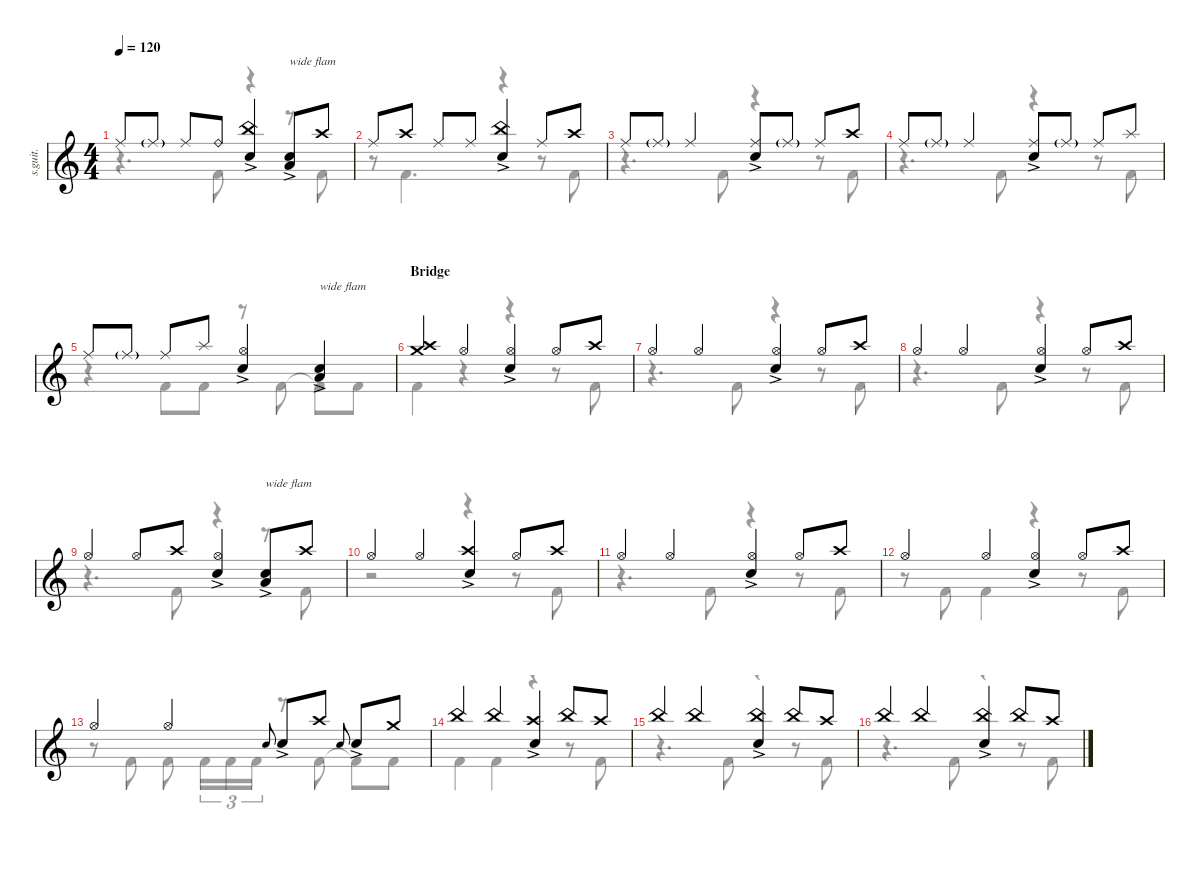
\defaultSystemsLayout 4
\hideDynamics
\bracketExtendMode nobrackets
\track ("Percussion" "s.guit.") {instrument percussion}
\staff {score}
\articulation defaults
\voice
\ts (4 4)
\tempo 120
\clef g2
\ks c "Ride (middle)".8{lyrics (0 "") lyrics (1 "") lyrics (2 "") lyrics (3 "") lyrics (4 "") dy f} "Ride (middle)"{g}.8{lyrics (0 "") lyrics (1 "") lyrics (2 "") lyrics (3 "") lyrics (4 "") dy ff} "Ride (middle)".8{lyrics (0 "") lyrics (1 "") lyrics (2 "") lyrics (3 "") lyrics (4 "") dy f} "Ride (bell)".8{lyrics (0 "") lyrics (1 "") lyrics (2 "") lyrics (3 "") lyrics (4 "")}
("China (hit)" "Snare (hit) 2"{ac}).4{lyrics (0 "") lyrics (1 "") lyrics (2 "") lyrics (3 "") lyrics (4 "")} ("Snare (hit) 2"{ac} "Low Tom (hit)"{ac}).8{txt "wide flam" lyrics (0 "") lyrics (1 "") lyrics (2 "") lyrics (3 "") lyrics (4 "") dy mf} "Crash high (hit)".8{lyrics (0 "") lyrics (1 "") lyrics (2 "") lyrics (3 "") lyrics (4 "") dy f} |
"Ride (middle)".8{lyrics (0 "") lyrics (1 "") lyrics (2 "") lyrics (3 "") lyrics (4 "")} "Crash high (hit)".8{lyrics (0 "") lyrics (1 "") lyrics (2 "") lyrics (3 "") lyrics (4 "")} "Ride (middle)".8{lyrics (0 "") lyrics (1 "") lyrics (2 "") lyrics (3 "") lyrics (4 "")} "Ride (middle)".8{lyrics (0 "") lyrics (1 "") lyrics (2 "") lyrics (3 "") lyrics (4 "")} ("China (hit)" "Snare (hit) 2"{ac}).4{lyrics (0 "") lyrics (1 "") lyrics (2 "") lyrics (3 "") lyrics (4 "")} "Ride (middle)".8{lyrics (0 "") lyrics (1 "") lyrics (2 "") lyrics (3 "") lyrics (4 "")} "Crash high (hit)".8{lyrics (0 "") lyrics (1 "") lyrics (2 "") lyrics (3 "") lyrics (4 "")} |
"Ride (middle)".8{lyrics (0 "") lyrics (1 "") lyrics (2 "") lyrics (3 "") lyrics (4 "")} "Ride (middle)"{g}.8{lyrics (0 "") lyrics (1 "") lyrics (2 "") lyrics (3 "") lyrics (4 "") dy ff} "Ride (middle)".4{lyrics (0 "") lyrics (1 "") lyrics (2 "") lyrics (3 "") lyrics (4 "") dy f} ("Ride (middle)" "Snare (hit) 2"{ac}).8{lyrics (0 "") lyrics (1 "") lyrics (2 "") lyrics (3 "") lyrics (4 "")} "Ride (middle)"{g}.8{lyrics (0 "") lyrics (1 "") lyrics (2 "") lyrics (3 "") lyrics (4 "") dy ff} "Ride (middle)".8{lyrics (0 "") lyrics (1 "") lyrics (2 "") lyrics (3 "") lyrics (4 "") dy f} "Crash high (hit)".8{lyrics (0 "") lyrics (1 "") lyrics (2 "") lyrics (3 "") lyrics (4 "")} |
"Ride (middle)".8{lyrics (0 "") lyrics (1 "") lyrics (2 "") lyrics (3 "") lyrics (4 "")} "Ride (middle)"{g}.8{lyrics (0 "") lyrics (1 "") lyrics (2 "") lyrics (3 "") lyrics (4 "") dy ff} "Ride (middle)".4{lyrics (0 "") lyrics (1 "") lyrics (2 "") lyrics (3 "") lyrics (4 "") dy f} ("Ride (middle)" "Snare (hit) 2"{ac}).8{lyrics (0 "") lyrics (1 "") lyrics (2 "") lyrics (3 "") lyrics (4 "")} "Ride (middle)"{g}.8{lyrics (0 "") lyrics (1 "") lyrics (2 "") lyrics (3 "") lyrics (4 "") dy ff} "Ride (middle)".8{lyrics (0 "") lyrics (1 "") lyrics (2 "") lyrics (3 "") lyrics (4 "") dy f} "Splash (hit)".8{lyrics (0 "") lyrics (1 "") lyrics (2 "") lyrics (3 "") lyrics (4 "")} |
"Ride (middle)".8{lyrics (0 "") lyrics (1 "") lyrics (2 "") lyrics (3 "") lyrics (4 "")} "Ride (middle)"{g}.8{lyrics (0 "") lyrics (1 "") lyrics (2 "") lyrics (3 "") lyrics (4 "") dy ff} "Ride (middle)".8{lyrics (0 "") lyrics (1 "") lyrics (2 "") lyrics (3 "") lyrics (4 "") dy f} "Splash (hit)".8{lyrics (0 "") lyrics (1 "") lyrics (2 "") lyrics (3 "") lyrics (4 "")} ("Snare (hit) 2"{ac} "Hi-Hat (open)").4{lyrics (0 "") lyrics (1 "") lyrics (2 "") lyrics (3 "") lyrics (4 "")} ("Snare (hit) 2"{ac} "Low Tom (hit)"{ac}).4{txt "wide flam" lyrics (0 "") lyrics (1 "") lyrics (2 "") lyrics (3 "") lyrics (4 "") dy mf} |
\section ("" "Bridge")
("Crash high (hit)" "Crash medium (hit)").4{lyrics (0 "") lyrics (1 "") lyrics (2 "") lyrics (3 "") lyrics (4 "") dy f} "Hi-Hat (open)".4{lyrics (0 "") lyrics (1 "") lyrics (2 "") lyrics (3 "") lyrics (4 "")} ("Hi-Hat (open)" "Snare (hit) 2"{ac}).4{lyrics (0 "") lyrics (1 "") lyrics (2 "") lyrics (3 "") lyrics (4 "")} "Hi-Hat (open)".8{lyrics (0 "") lyrics (1 "") lyrics (2 "") lyrics (3 "") lyrics (4 "")} "Crash high (hit)".8{lyrics (0 "") lyrics (1 "") lyrics (2 "") lyrics (3 "") lyrics (4 "")} |
"Hi-Hat (open)".4{lyrics (0 "") lyrics (1 "") lyrics (2 "") lyrics (3 "") lyrics (4 "")} "Hi-Hat (open)".4{lyrics (0 "") lyrics (1 "") lyrics (2 "") lyrics (3 "") lyrics (4 "")} ("Hi-Hat (open)" "Snare (hit) 2"{ac}).4{lyrics (0 "") lyrics (1 "") lyrics (2 "") lyrics (3 "") lyrics (4 "")} "Hi-Hat (open)".8{lyrics (0 "") lyrics (1 "") lyrics (2 "") lyrics (3 "") lyrics (4 "")} "Crash high (hit)".8{lyrics (0 "") lyrics (1 "") lyrics (2 "") lyrics (3 "") lyrics (4 "")} |
"Hi-Hat (open)".4{lyrics (0 "") lyrics (1 "") lyrics (2 "") lyrics (3 "") lyrics (4 "")} "Hi-Hat (open)".4{lyrics (0 "") lyrics (1 "") lyrics (2 "") lyrics (3 "") lyrics (4 "")} ("Hi-Hat (open)" "Snare (hit) 2"{ac}).4{lyrics (0 "") lyrics (1 "") lyrics (2 "") lyrics (3 "") lyrics (4 "")} "Hi-Hat (open)".8{lyrics (0 "") lyrics (1 "") lyrics (2 "") lyrics (3 "") lyrics (4 "")} "Crash high (hit)".8{lyrics (0 "") lyrics (1 "") lyrics (2 "") lyrics (3 "") lyrics (4 "")} |
"Hi-Hat (open)".4{lyrics (0 "") lyrics (1 "") lyrics (2 "") lyrics (3 "") lyrics (4 "")} "Hi-Hat (open)".8{lyrics (0 "") lyrics (1 "") lyrics (2 "") lyrics (3 "") lyrics (4 "")} "Crash high (hit)".8{lyrics (0 "") lyrics (1 "") lyrics (2 "") lyrics (3 "") lyrics (4 "")} ("Hi-Hat (open)" "Snare (hit) 2"{ac}).4{lyrics (0 "") lyrics (1 "") lyrics (2 "") lyrics (3 "") lyrics (4 "")} ("Snare (hit) 2"{ac} "Low Tom (hit)"{ac}).8{txt "wide flam" lyrics (0 "") lyrics (1 "") lyrics (2 "") lyrics (3 "") lyrics (4 "") dy mf} "Crash high (hit)".8{lyrics (0 "") lyrics (1 "") lyrics (2 "") lyrics (3 "") lyrics (4 "") dy f} |
"Hi-Hat (open)".4{lyrics (0 "") lyrics (1 "") lyrics (2 "") lyrics (3 "") lyrics (4 "")} "Hi-Hat (open)".4{lyrics (0 "") lyrics (1 "") lyrics (2 "") lyrics (3 "") lyrics (4 "")} ("Crash high (hit)" "Snare (hit) 2"{ac}).4{lyrics (0 "") lyrics (1 "") lyrics (2 "") lyrics (3 "") lyrics (4 "")} "Hi-Hat (open)".8{lyrics (0 "") lyrics (1 "") lyrics (2 "") lyrics (3 "") lyrics (4 "")} "Crash high (hit)".8{lyrics (0 "") lyrics (1 "") lyrics (2 "") lyrics (3 "") lyrics (4 "")} |
"Hi-Hat (open)".4{lyrics (0 "") lyrics (1 "") lyrics (2 "") lyrics (3 "") lyrics (4 "")} "Hi-Hat (open)".4{lyrics (0 "") lyrics (1 "") lyrics (2 "") lyrics (3 "") lyrics (4 "")} ("Hi-Hat (open)" "Snare (hit) 2"{ac}).4{lyrics (0 "") lyrics (1 "") lyrics (2 "") lyrics (3 "") lyrics (4 "")} "Hi-Hat (open)".8{lyrics (0 "") lyrics (1 "") lyrics (2 "") lyrics (3 "") lyrics (4 "")} "Crash high (hit)".8{lyrics (0 "") lyrics (1 "") lyrics (2 "") lyrics (3 "") lyrics (4 "")} |
"Hi-Hat (open)".4{lyrics (0 "") lyrics (1 "") lyrics (2 "") lyrics (3 "") lyrics (4 "")} "Hi-Hat (open)".4{lyrics (0 "") lyrics (1 "") lyrics (2 "") lyrics (3 "") lyrics (4 "")} ("Hi-Hat (open)" "Snare (hit) 2"{ac}).4{lyrics (0 "") lyrics (1 "") lyrics (2 "") lyrics (3 "") lyrics (4 "")} "Hi-Hat (open)".8{lyrics (0 "") lyrics (1 "") lyrics (2 "") lyrics (3 "") lyrics (4 "")} "Crash high (hit)".8{lyrics (0 "") lyrics (1 "") lyrics (2 "") lyrics (3 "") lyrics (4 "")} |
"Hi-Hat (open)".4{lyrics (0 "") lyrics (1 "") lyrics (2 "") lyrics (3 "") lyrics (4 "")} "Hi-Hat (open)".4{lyrics (0 "") lyrics (1 "") lyrics (2 "") lyrics (3 "") lyrics (4 "")} "Snare (hit) 2".8{lyrics (0 "") lyrics (1 "") lyrics (2 "") lyrics (3 "") lyrics (4 "") gr onbeat dy mf} "Snare (hit) 2"{ac}.8{lyrics (0 "") lyrics (1 "") lyrics (2 "") lyrics (3 "") lyrics (4 "")} "Crash high (hit)".8{lyrics (0 "") lyrics (1 "") lyrics (2 "") lyrics (3 "") lyrics (4 "") dy f} "Snare (hit) 2".8{lyrics (0 "") lyrics (1 "") lyrics (2 "") lyrics (3 "") lyrics (4 "") gr onbeat dy mf} "Snare (hit) 2"{ac}.8{lyrics (0 "") lyrics (1 "") lyrics (2 "") lyrics (3 "") lyrics (4 "")} "Crash medium (hit)".8{lyrics (0 "") lyrics (1 "") lyrics (2 "") lyrics (3 "") lyrics (4 "") dy f} |
"China (hit)".4{lyrics (0 "") lyrics (1 "") lyrics (2 "") lyrics (3 "") lyrics (4 "")} "China (hit)".4{lyrics (0 "") lyrics (1 "") lyrics (2 "") lyrics (3 "") lyrics (4 "")} ("Crash high (hit)" "Snare (hit) 2"{ac}).4{lyrics (0 "") lyrics (1 "") lyrics (2 "") lyrics (3 "") lyrics (4 "")} "China (hit)".8{lyrics (0 "") lyrics (1 "") lyrics (2 "") lyrics (3 "") lyrics (4 "")} "Crash high (hit)".8{lyrics (0 "") lyrics (1 "") lyrics (2 "") lyrics (3 "") lyrics (4 "")} |
"China (hit)".4{lyrics (0 "") lyrics (1 "") lyrics (2 "") lyrics (3 "") lyrics (4 "")} "China (hit)".4{lyrics (0 "") lyrics (1 "") lyrics (2 "") lyrics (3 "") lyrics (4 "")} ("China (hit)" "Snare (hit) 2"{ac}).4{lyrics (0 "") lyrics (1 "") lyrics (2 "") lyrics (3 "") lyrics (4 "")} "China (hit)".8{lyrics (0 "") lyrics (1 "") lyrics (2 "") lyrics (3 "") lyrics (4 "")} "Crash high (hit)".8{lyrics (0 "") lyrics (1 "") lyrics (2 "") lyrics (3 "") lyrics (4 "")} |
"China (hit)".4{lyrics (0 "") lyrics (1 "") lyrics (2 "") lyrics (3 "") lyrics (4 "")} "China (hit)".4{lyrics (0 "") lyrics (1 "") lyrics (2 "") lyrics (3 "") lyrics (4 "")} ("China (hit)" "Snare (hit) 2"{ac}).4{lyrics (0 "") lyrics (1 "") lyrics (2 "") lyrics (3 "") lyrics (4 "")} "China (hit)".8{lyrics (0 "") lyrics (1 "") lyrics (2 "") lyrics (3 "") lyrics (4 "")} "Crash high (hit)".8{lyrics (0 "") lyrics (1 "") lyrics (2 "") lyrics (3 "") lyrics (4 "")}
\voice
\clef g2
\ottava regular
\simile none
\ks c
r.4{d dy f} "Kick (hit) 2".8{lyrics (0 "") lyrics (1 "") lyrics (2 "") lyrics (3 "") lyrics (4 "")} r.4 r.8 "Kick (hit) 2".8{lyrics (0 "") lyrics (1 "") lyrics (2 "") lyrics (3 "") lyrics (4 "")} |
r.8 "Kick (hit) 2".4{d lyrics (0 "") lyrics (1 "") lyrics (2 "") lyrics (3 "") lyrics (4 "")} r.4 r.8 "Kick (hit) 2".8{lyrics (0 "") lyrics (1 "") lyrics (2 "") lyrics (3 "") lyrics (4 "")} |
r.4{d} "Kick (hit) 2".8{lyrics (0 "") lyrics (1 "") lyrics (2 "") lyrics (3 "") lyrics (4 "")} r.4 r.8 "Kick (hit) 2".8{lyrics (0 "") lyrics (1 "") lyrics (2 "") lyrics (3 "") lyrics (4 "")} |
r.4{d} "Kick (hit) 2".8{lyrics (0 "") lyrics (1 "") lyrics (2 "") lyrics (3 "") lyrics (4 "")} r.4 r.8 "Kick (hit) 2".8{lyrics (0 "") lyrics (1 "") lyrics (2 "") lyrics (3 "") lyrics (4 "")} |
r.4 "Kick (hit) 2".8{lyrics (0 "") lyrics (1 "") lyrics (2 "") lyrics (3 "") lyrics (4 "")} "Kick (hit) 2".8{lyrics (0 "") lyrics (1 "") lyrics (2 "") lyrics (3 "") lyrics (4 "")} r.8 "Kick (hit) 2".8{lyrics (0 "") lyrics (1 "") lyrics (2 "") lyrics (3 "") lyrics (4 "")} "Kick (hit) 2"{t}.8{lyrics (0 "") lyrics (1 "") lyrics (2 "") lyrics (3 "") lyrics (4 "")} "Kick (hit) 2".8{lyrics (0 "") lyrics (1 "") lyrics (2 "") lyrics (3 "") lyrics (4 "")} |
"Kick (hit) 2".4{lyrics (0 "") lyrics (1 "") lyrics (2 "") lyrics (3 "") lyrics (4 "")} r.4 r.4 r.8 "Kick (hit) 2".8{lyrics (0 "") lyrics (1 "") lyrics (2 "") lyrics (3 "") lyrics (4 "")} |
r.4{d} "Kick (hit) 2".8{lyrics (0 "") lyrics (1 "") lyrics (2 "") lyrics (3 "") lyrics (4 "")} r.4 r.8 "Kick (hit) 2".8{lyrics (0 "") lyrics (1 "") lyrics (2 "") lyrics (3 "") lyrics (4 "")} |
r.4{d} "Kick (hit) 2".8{lyrics (0 "") lyrics (1 "") lyrics (2 "") lyrics (3 "") lyrics (4 "")} r.4 r.8 "Kick (hit) 2".8{lyrics (0 "") lyrics (1 "") lyrics (2 "") lyrics (3 "") lyrics (4 "")} |
r.4{d} "Kick (hit) 2".8{lyrics (0 "") lyrics (1 "") lyrics (2 "") lyrics (3 "") lyrics (4 "")} r.4 r.8 "Kick (hit) 2".8{lyrics (0 "") lyrics (1 "") lyrics (2 "") lyrics (3 "") lyrics (4 "")} |
r.2 r.4 r.8 "Kick (hit) 2".8{lyrics (0 "") lyrics (1 "") lyrics (2 "") lyrics (3 "") lyrics (4 "")} |
r.4{d} "Kick (hit) 2".8{lyrics (0 "") lyrics (1 "") lyrics (2 "") lyrics (3 "") lyrics (4 "")} r.4 r.8 "Kick (hit) 2".8{lyrics (0 "") lyrics (1 "") lyrics (2 "") lyrics (3 "") lyrics (4 "")} |
r.8 "Kick (hit) 2".8{lyrics (0 "") lyrics (1 "") lyrics (2 "") lyrics (3 "") lyrics (4 "")} "Kick (hit) 2".4{lyrics (0 "") lyrics (1 "") lyrics (2 "") lyrics (3 "") lyrics (4 "")} r.4 r.8 "Kick (hit) 2".8{lyrics (0 "") lyrics (1 "") lyrics (2 "") lyrics (3 "") lyrics (4 "")} |
r.8 "Kick (hit) 2".8{lyrics (0 "") lyrics (1 "") lyrics (2 "") lyrics (3 "") lyrics (4 "")} "Kick (hit) 2".8{lyrics (0 "") lyrics (1 "") lyrics (2 "") lyrics (3 "") lyrics (4 "")} "Kick (hit) 2".16{tu (3 2) lyrics (0 "") lyrics (1 "") lyrics (2 "") lyrics (3 "") lyrics (4 "")} "Kick (hit) 2".16{tu (3 2) lyrics (0 "") lyrics (1 "") lyrics (2 "") lyrics (3 "") lyrics (4 "")} "Kick (hit) 2".16{tu (3 2) lyrics (0 "") lyrics (1 "") lyrics (2 "") lyrics (3 "") lyrics (4 "")} r.8 "Kick (hit) 2".8{lyrics (0 "") lyrics (1 "") lyrics (2 "") lyrics (3 "") lyrics (4 "")} "Kick (hit) 2"{t}.8{lyrics (0 "") lyrics (1 "") lyrics (2 "") lyrics (3 "") lyrics (4 "")} "Kick (hit) 2".8{lyrics (0 "") lyrics (1 "") lyrics (2 "") lyrics (3 "") lyrics (4 "")} |
"Kick (hit) 2".4{lyrics (0 "") lyrics (1 "") lyrics (2 "") lyrics (3 "") lyrics (4 "")} "Kick (hit) 2".4{lyrics (0 "") lyrics (1 "") lyrics (2 "") lyrics (3 "") lyrics (4 "")} r.4 r.8 "Kick (hit) 2".8{lyrics (0 "") lyrics (1 "") lyrics (2 "") lyrics (3 "") lyrics (4 "")} |
r.4{d} "Kick (hit) 2".8{lyrics (0 "") lyrics (1 "") lyrics (2 "") lyrics (3 "") lyrics (4 "")} r.4 r.8 "Kick (hit) 2".8{lyrics (0 "") lyrics (1 "") lyrics (2 "") lyrics (3 "") lyrics (4 "")} |
r.4{d} "Kick (hit) 2".8{lyrics (0 "") lyrics (1 "") lyrics (2 "") lyrics (3 "") lyrics (4 "")} r.4 r.8 "Kick (hit) 2".8{lyrics (0 "") lyrics (1 "") lyrics (2 "") lyrics (3 "") lyrics (4 "")}
